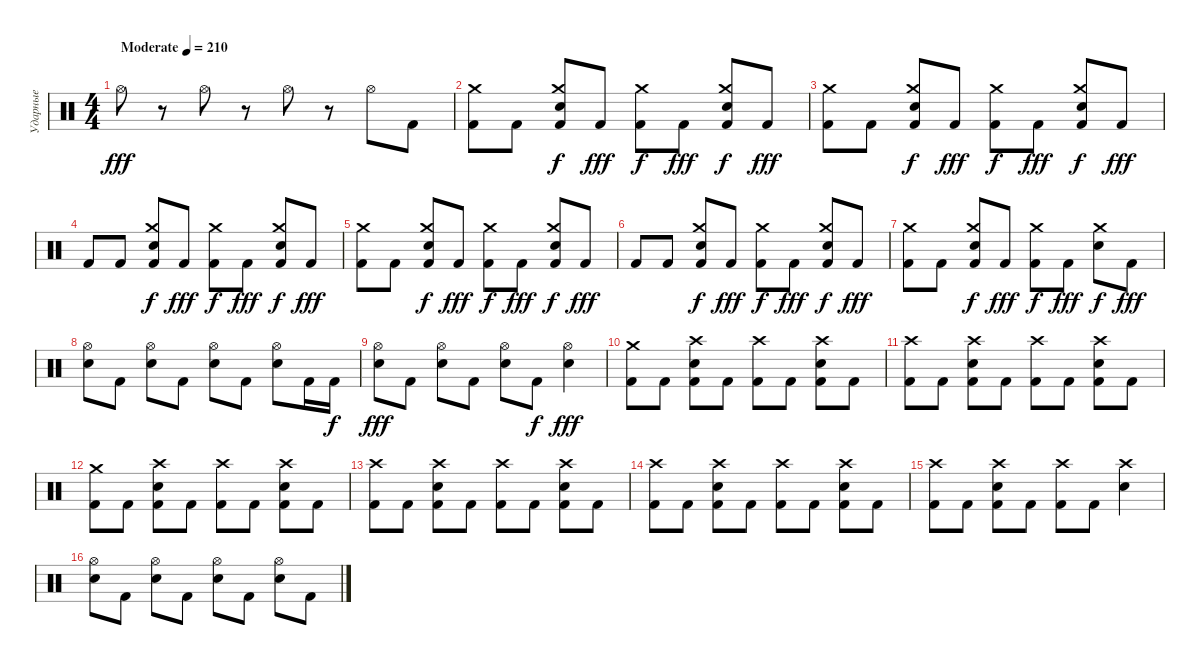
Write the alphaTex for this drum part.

\track ("Ударные" "Ударные") {instrument percussion}
\staff {score}
\articulation defaults
\ts (4 4)
\tempo (210 "Moderate")
\clef neutral
\ks c "Hi-Hat (open)".8{dy fff}
r.8 "Hi-Hat (open)".8 r.8 "Hi-Hat (open)".8 r.8 "Hi-Hat (open)".8 "Kick (hit) 2".8 |
("Crash medium (hit)" "Kick (hit) 2").8{balance 16} "Kick (hit) 2".8 ("Crash medium (hit)" "Electric Snare (hit)" "Kick (hit) 2").8{dy f} "Kick (hit) 2".8{dy fff} ("Crash medium (hit)" "Kick (hit) 2").8{dy f} "Kick (hit) 2".8{dy fff} ("Crash medium (hit)" "Electric Snare (hit)" "Kick (hit) 2").8{dy f} "Kick (hit) 2".8{dy fff} |
("Crash medium (hit)" "Kick (hit) 2").8{balance 16} "Kick (hit) 2".8 ("Crash medium (hit)" "Electric Snare (hit)" "Kick (hit) 2").8{dy f} "Kick (hit) 2".8{dy fff} ("Crash medium (hit)" "Kick (hit) 2").8{dy f} "Kick (hit) 2".8{dy fff} ("Crash medium (hit)" "Electric Snare (hit)" "Kick (hit) 2").8{dy f} "Kick (hit) 2".8{dy fff} |
"Kick (hit) 2".8{balance 16} "Kick (hit) 2".8 ("Crash medium (hit)" "Electric Snare (hit)" "Kick (hit) 2").8{dy f} "Kick (hit) 2".8{dy fff} ("Crash medium (hit)" "Kick (hit) 2").8{dy f} "Kick (hit) 2".8{dy fff} ("Crash medium (hit)" "Electric Snare (hit)" "Kick (hit) 2").8{dy f} "Kick (hit) 2".8{dy fff} |
("Crash medium (hit)" "Kick (hit) 2").8{balance 16} "Kick (hit) 2".8 ("Crash medium (hit)" "Electric Snare (hit)" "Kick (hit) 2").8{dy f} "Kick (hit) 2".8{dy fff} ("Crash medium (hit)" "Kick (hit) 2").8{dy f} "Kick (hit) 2".8{dy fff} ("Crash medium (hit)" "Electric Snare (hit)" "Kick (hit) 2").8{dy f} "Kick (hit) 2".8{dy fff} |
"Kick (hit) 2".8{balance 16} "Kick (hit) 2".8 ("Crash medium (hit)" "Electric Snare (hit)" "Kick (hit) 2").8{dy f} "Kick (hit) 2".8{dy fff} ("Crash medium (hit)" "Kick (hit) 2").8{dy f} "Kick (hit) 2".8{dy fff} ("Crash medium (hit)" "Electric Snare (hit)" "Kick (hit) 2").8{dy f} "Kick (hit) 2".8{dy fff} |
("Crash medium (hit)" "Kick (hit) 2").8{balance 16} "Kick (hit) 2".8 ("Crash medium (hit)" "Electric Snare (hit)" "Kick (hit) 2").8{dy f} "Kick (hit) 2".8{dy fff} ("Crash medium (hit)" "Kick (hit) 2").8{dy f} "Kick (hit) 2".8{dy fff} ("Crash medium (hit)" "Electric Snare (hit)").8{dy f} "Kick (hit) 2".8{dy fff} |
("Hi-Hat (open)" "Electric Snare (hit)").8 "Kick (hit) 2".8 ("Hi-Hat (open)" "Electric Snare (hit)").8 "Kick (hit) 2".8 ("Hi-Hat (open)" "Electric Snare (hit)").8 "Kick (hit) 2".8 ("Hi-Hat (open)" "Electric Snare (hit)").8 "Kick (hit) 2".16 "Kick (hit) 2".16{dy f} |
("Hi-Hat (open)" "Electric Snare (hit)").8{dy fff} "Kick (hit) 2".8 ("Hi-Hat (open)" "Electric Snare (hit)").8 "Kick (hit) 2".8 ("Hi-Hat (open)" "Electric Snare (hit)").8 "Kick (hit) 2".8{dy f} ("Hi-Hat (open)" "Electric Snare (hit)").4{dy fff} |
("Crash medium (hit)" "Kick (hit) 2").8 "Kick (hit) 2".8 ("Crash high (hit)" "Electric Snare (hit)" "Kick (hit) 2").8 "Kick (hit) 2".8 ("Crash high (hit)" "Kick (hit) 2").8 "Kick (hit) 2".8 ("Crash high (hit)" "Electric Snare (hit)" "Kick (hit) 2").8 "Kick (hit) 2".8 |
("Crash high (hit)" "Kick (hit) 2").8 "Kick (hit) 2".8 ("Crash high (hit)" "Electric Snare (hit)" "Kick (hit) 2").8 "Kick (hit) 2".8 ("Crash high (hit)" "Kick (hit) 2").8 "Kick (hit) 2".8 ("Crash high (hit)" "Electric Snare (hit)" "Kick (hit) 2").8 "Kick (hit) 2".8 |
("Crash medium (hit)" "Kick (hit) 2").8 "Kick (hit) 2".8 ("Crash high (hit)" "Electric Snare (hit)" "Kick (hit) 2").8 "Kick (hit) 2".8 ("Crash high (hit)" "Kick (hit) 2").8 "Kick (hit) 2".8 ("Crash high (hit)" "Electric Snare (hit)" "Kick (hit) 2").8 "Kick (hit) 2".8 |
("Crash high (hit)" "Kick (hit) 2").8 "Kick (hit) 2".8 ("Crash high (hit)" "Electric Snare (hit)" "Kick (hit) 2").8 "Kick (hit) 2".8 ("Crash high (hit)" "Kick (hit) 2").8 "Kick (hit) 2".8 ("Crash high (hit)" "Electric Snare (hit)" "Kick (hit) 2").8 "Kick (hit) 2".8 |
("Crash high (hit)" "Kick (hit) 2").8 "Kick (hit) 2".8 ("Crash high (hit)" "Electric Snare (hit)" "Kick (hit) 2").8 "Kick (hit) 2".8 ("Crash high (hit)" "Kick (hit) 2").8 "Kick (hit) 2".8 ("Crash high (hit)" "Electric Snare (hit)" "Kick (hit) 2").8 "Kick (hit) 2".8 |
("Crash high (hit)" "Kick (hit) 2").8 "Kick (hit) 2".8 ("Crash high (hit)" "Electric Snare (hit)" "Kick (hit) 2").8 "Kick (hit) 2".8 ("Crash high (hit)" "Kick (hit) 2").8 "Kick (hit) 2".8 ("Crash high (hit)" "Electric Snare (hit)").4 |
("Hi-Hat (open)" "Electric Snare (hit)").8 "Kick (hit) 2".8 ("Hi-Hat (open)" "Electric Snare (hit)").8 "Kick (hit) 2".8 ("Hi-Hat (open)" "Electric Snare (hit)").8 "Kick (hit) 2".8 ("Hi-Hat (open)" "Electric Snare (hit)").8 "Kick (hit) 2".8
